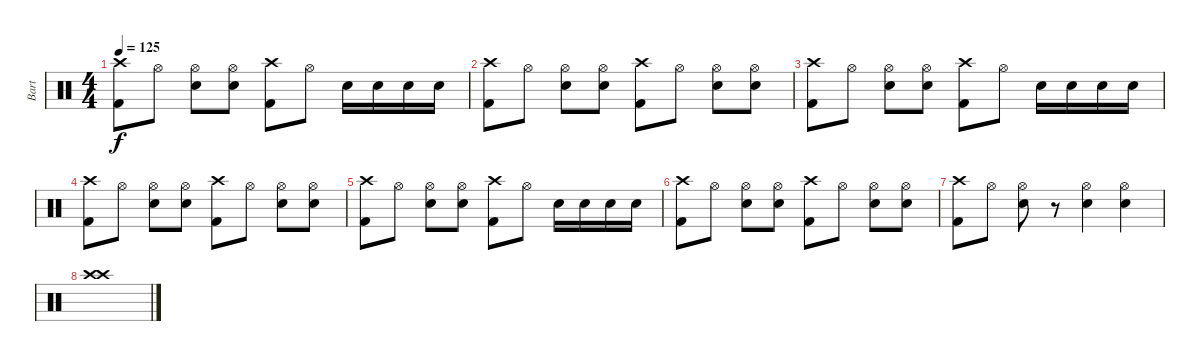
\track ("Bart" "Bart") {instrument percussion}
\staff {score}
\articulation defaults
\ts (4 4)
\tempo 125
\clef neutral
\ks c
("Crash high (hit)" "Kick (hit) 2").8{dy f} "Hi-Hat (open)".8 ("Hi-Hat (open)" "Snare (hit) 2").8 ("Hi-Hat (open)" "Snare (hit) 2").8 ("Crash high (hit)" "Kick (hit) 2").8 "Hi-Hat (open)".8 "Snare (hit) 2".16 "Snare (hit) 2".16 "Snare (hit) 2".16 "Snare (hit) 2".16 |
("Crash high (hit)" "Kick (hit) 2").8 "Hi-Hat (open)".8 ("Hi-Hat (open)" "Snare (hit) 2").8 ("Hi-Hat (open)" "Snare (hit) 2").8 ("Crash high (hit)" "Kick (hit) 2").8 "Hi-Hat (open)".8 ("Hi-Hat (open)" "Snare (hit) 2").8 ("Hi-Hat (open)" "Snare (hit) 2").8 |
("Crash high (hit)" "Kick (hit) 2").8 "Hi-Hat (open)".8 ("Hi-Hat (open)" "Snare (hit) 2").8 ("Hi-Hat (open)" "Snare (hit) 2").8 ("Crash high (hit)" "Kick (hit) 2").8 "Hi-Hat (open)".8 "Snare (hit) 2".16 "Snare (hit) 2".16 "Snare (hit) 2".16 "Snare (hit) 2".16 |
("Crash high (hit)" "Kick (hit) 2").8 "Hi-Hat (open)".8 ("Hi-Hat (open)" "Snare (hit) 2").8 ("Hi-Hat (open)" "Snare (hit) 2").8 ("Crash high (hit)" "Kick (hit) 2").8 "Hi-Hat (open)".8 ("Hi-Hat (open)" "Snare (hit) 2").8 ("Hi-Hat (open)" "Snare (hit) 2").8 |
("Crash high (hit)" "Kick (hit) 2").8 "Hi-Hat (open)".8 ("Hi-Hat (open)" "Snare (hit) 2").8 ("Hi-Hat (open)" "Snare (hit) 2").8 ("Crash high (hit)" "Kick (hit) 2").8 "Hi-Hat (open)".8 "Snare (hit) 2".16 "Snare (hit) 2".16 "Snare (hit) 2".16 "Snare (hit) 2".16 |
("Crash high (hit)" "Kick (hit) 2").8 "Hi-Hat (open)".8 ("Hi-Hat (open)" "Snare (hit) 2").8 ("Hi-Hat (open)" "Snare (hit) 2").8 ("Crash high (hit)" "Kick (hit) 2").8 "Hi-Hat (open)".8 ("Hi-Hat (open)" "Snare (hit) 2").8 ("Hi-Hat (open)" "Snare (hit) 2").8 |
("Crash high (hit)" "Kick (hit) 2").8 "Hi-Hat (open)".8 ("Hi-Hat (open)" "Snare (hit) 2").8 r.8 ("Hi-Hat (open)" "Snare (hit) 2").4 ("Hi-Hat (open)" "Snare (hit) 2").4 |
("Crash high (hit)" "Crash high (hit)").1
